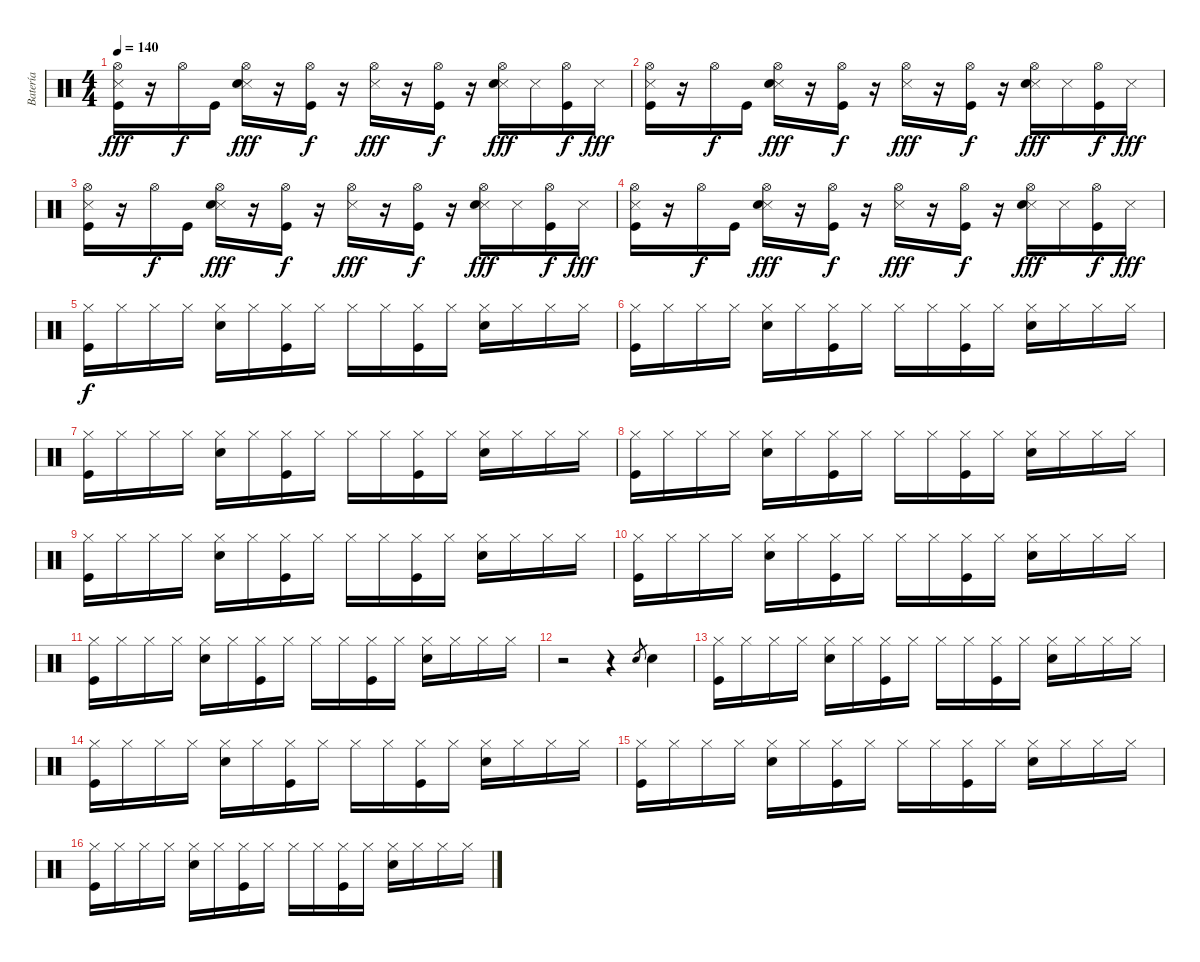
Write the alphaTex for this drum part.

\track ("Batería" "Batería") {instrument percussion}
\staff {score}
\articulation defaults
\ts (4 4)
\tempo 140
\clef neutral
\ks c
("Metronome (hit)" "Hi-Hat (open)" "Kick (hit)").16{dy fff} r.16 "Hi-Hat (open)".16{dy f} "Kick (hit)".16 ("Metronome (hit)" "Hi-Hat (open)" "Snare (hit) 2").16{dy fff} r.16 ("Hi-Hat (open)" "Kick (hit)").16{dy f} r.16 ("Metronome (hit)" "Hi-Hat (open)").16{dy fff} r.16 ("Hi-Hat (open)" "Kick (hit)").16{dy f} r.16 ("Metronome (hit)" "Hi-Hat (open)" "Snare (hit) 2").16{dy fff} "Metronome (hit)".16 ("Hi-Hat (open)" "Kick (hit)").16{dy f} "Metronome (hit)".16{dy fff} |
("Metronome (hit)" "Hi-Hat (open)" "Kick (hit)").16 r.16 "Hi-Hat (open)".16{dy f} "Kick (hit)".16 ("Metronome (hit)" "Hi-Hat (open)" "Snare (hit) 2").16{dy fff} r.16 ("Hi-Hat (open)" "Kick (hit)").16{dy f} r.16 ("Metronome (hit)" "Hi-Hat (open)").16{dy fff} r.16 ("Hi-Hat (open)" "Kick (hit)").16{dy f} r.16 ("Metronome (hit)" "Hi-Hat (open)" "Snare (hit) 2").16{dy fff} "Metronome (hit)".16 ("Hi-Hat (open)" "Kick (hit)").16{dy f} "Metronome (hit)".16{dy fff} |
("Metronome (hit)" "Hi-Hat (open)" "Kick (hit)").16 r.16 "Hi-Hat (open)".16{dy f} "Kick (hit)".16 ("Metronome (hit)" "Hi-Hat (open)" "Snare (hit) 2").16{dy fff} r.16 ("Hi-Hat (open)" "Kick (hit)").16{dy f} r.16 ("Metronome (hit)" "Hi-Hat (open)").16{dy fff} r.16 ("Hi-Hat (open)" "Kick (hit)").16{dy f} r.16 ("Metronome (hit)" "Hi-Hat (open)" "Snare (hit) 2").16{dy fff} "Metronome (hit)".16 ("Hi-Hat (open)" "Kick (hit)").16{dy f} "Metronome (hit)".16{dy fff} |
("Metronome (hit)" "Hi-Hat (open)" "Kick (hit)").16 r.16 "Hi-Hat (open)".16{dy f} "Kick (hit)".16 ("Metronome (hit)" "Hi-Hat (open)" "Snare (hit) 2").16{dy fff} r.16 ("Hi-Hat (open)" "Kick (hit)").16{dy f} r.16 ("Metronome (hit)" "Hi-Hat (open)").16{dy fff} r.16 ("Hi-Hat (open)" "Kick (hit)").16{dy f} r.16 ("Metronome (hit)" "Hi-Hat (open)" "Snare (hit) 2").16{dy fff} "Metronome (hit)".16 ("Hi-Hat (open)" "Kick (hit)").16{dy f} "Metronome (hit)".16{dy fff} |
("Hi-Hat (closed)" "Kick (hit)").16{dy f} "Hi-Hat (closed)".16 "Hi-Hat (closed)".16 "Hi-Hat (closed)".16 ("Hi-Hat (closed)" "Snare (hit) 2").16 "Hi-Hat (closed)".16 ("Hi-Hat (closed)" "Kick (hit)").16 "Hi-Hat (closed)".16 "Hi-Hat (closed)".16 "Hi-Hat (closed)".16 ("Hi-Hat (closed)" "Kick (hit)").16 "Hi-Hat (closed)".16 ("Hi-Hat (closed)" "Snare (hit) 2").16 "Hi-Hat (closed)".16 "Hi-Hat (closed)".16 "Hi-Hat (closed)".16 |
("Hi-Hat (closed)" "Kick (hit)").16 "Hi-Hat (closed)".16 "Hi-Hat (closed)".16 "Hi-Hat (closed)".16 ("Hi-Hat (closed)" "Snare (hit) 2").16 "Hi-Hat (closed)".16 ("Hi-Hat (closed)" "Kick (hit)").16 "Hi-Hat (closed)".16 "Hi-Hat (closed)".16 "Hi-Hat (closed)".16 ("Hi-Hat (closed)" "Kick (hit)").16 "Hi-Hat (closed)".16 ("Hi-Hat (closed)" "Snare (hit) 2").16 "Hi-Hat (closed)".16 "Hi-Hat (closed)".16 "Hi-Hat (closed)".16 |
("Hi-Hat (closed)" "Kick (hit)").16 "Hi-Hat (closed)".16 "Hi-Hat (closed)".16 "Hi-Hat (closed)".16 ("Hi-Hat (closed)" "Snare (hit) 2").16 "Hi-Hat (closed)".16 ("Hi-Hat (closed)" "Kick (hit)").16 "Hi-Hat (closed)".16 "Hi-Hat (closed)".16 "Hi-Hat (closed)".16 ("Hi-Hat (closed)" "Kick (hit)").16 "Hi-Hat (closed)".16 ("Hi-Hat (closed)" "Snare (hit) 2").16 "Hi-Hat (closed)".16 "Hi-Hat (closed)".16 "Hi-Hat (closed)".16 |
("Hi-Hat (closed)" "Kick (hit)").16 "Hi-Hat (closed)".16 "Hi-Hat (closed)".16 "Hi-Hat (closed)".16 ("Hi-Hat (closed)" "Snare (hit) 2").16 "Hi-Hat (closed)".16 ("Hi-Hat (closed)" "Kick (hit)").16 "Hi-Hat (closed)".16 "Hi-Hat (closed)".16 "Hi-Hat (closed)".16 ("Hi-Hat (closed)" "Kick (hit)").16 "Hi-Hat (closed)".16 ("Hi-Hat (closed)" "Snare (hit) 2").16 "Hi-Hat (closed)".16 "Hi-Hat (closed)".16 "Hi-Hat (closed)".16 |
("Hi-Hat (closed)" "Kick (hit)").16 "Hi-Hat (closed)".16 "Hi-Hat (closed)".16 "Hi-Hat (closed)".16 ("Hi-Hat (closed)" "Snare (hit) 2").16 "Hi-Hat (closed)".16 ("Hi-Hat (closed)" "Kick (hit)").16 "Hi-Hat (closed)".16 "Hi-Hat (closed)".16 "Hi-Hat (closed)".16 ("Hi-Hat (closed)" "Kick (hit)").16 "Hi-Hat (closed)".16 ("Hi-Hat (closed)" "Snare (hit) 2").16 "Hi-Hat (closed)".16 "Hi-Hat (closed)".16 "Hi-Hat (closed)".16 |
("Hi-Hat (closed)" "Kick (hit)").16 "Hi-Hat (closed)".16 "Hi-Hat (closed)".16 "Hi-Hat (closed)".16 ("Hi-Hat (closed)" "Snare (hit) 2").16 "Hi-Hat (closed)".16 ("Hi-Hat (closed)" "Kick (hit)").16 "Hi-Hat (closed)".16 "Hi-Hat (closed)".16 "Hi-Hat (closed)".16 ("Hi-Hat (closed)" "Kick (hit)").16 "Hi-Hat (closed)".16 ("Hi-Hat (closed)" "Snare (hit) 2").16 "Hi-Hat (closed)".16 "Hi-Hat (closed)".16 "Hi-Hat (closed)".16 |
("Hi-Hat (closed)" "Kick (hit)").16 "Hi-Hat (closed)".16 "Hi-Hat (closed)".16 "Hi-Hat (closed)".16 ("Hi-Hat (closed)" "Snare (hit) 2").16 "Hi-Hat (closed)".16 ("Hi-Hat (closed)" "Kick (hit)").16 "Hi-Hat (closed)".16 "Hi-Hat (closed)".16 "Hi-Hat (closed)".16 ("Hi-Hat (closed)" "Kick (hit)").16 "Hi-Hat (closed)".16 ("Hi-Hat (closed)" "Snare (hit) 2").16 "Hi-Hat (closed)".16 "Hi-Hat (closed)".16 "Hi-Hat (closed)".16 |
r.2 r.4 "Snare (hit) 2".8{gr} "Snare (hit) 2".4 |
("Hi-Hat (closed)" "Kick (hit)").16 "Hi-Hat (closed)".16 "Hi-Hat (closed)".16 "Hi-Hat (closed)".16 ("Hi-Hat (closed)" "Snare (hit) 2").16 "Hi-Hat (closed)".16 ("Hi-Hat (closed)" "Kick (hit)").16 "Hi-Hat (closed)".16 "Hi-Hat (closed)".16 "Hi-Hat (closed)".16 ("Hi-Hat (closed)" "Kick (hit)").16 "Hi-Hat (closed)".16 ("Hi-Hat (closed)" "Snare (hit) 2").16 "Hi-Hat (closed)".16 "Hi-Hat (closed)".16 "Hi-Hat (closed)".16 |
("Hi-Hat (closed)" "Kick (hit)").16 "Hi-Hat (closed)".16 "Hi-Hat (closed)".16 "Hi-Hat (closed)".16 ("Hi-Hat (closed)" "Snare (hit) 2").16 "Hi-Hat (closed)".16 ("Hi-Hat (closed)" "Kick (hit)").16 "Hi-Hat (closed)".16 "Hi-Hat (closed)".16 "Hi-Hat (closed)".16 ("Hi-Hat (closed)" "Kick (hit)").16 "Hi-Hat (closed)".16 ("Hi-Hat (closed)" "Snare (hit) 2").16 "Hi-Hat (closed)".16 "Hi-Hat (closed)".16 "Hi-Hat (closed)".16 |
("Hi-Hat (closed)" "Kick (hit)").16 "Hi-Hat (closed)".16 "Hi-Hat (closed)".16 "Hi-Hat (closed)".16 ("Hi-Hat (closed)" "Snare (hit) 2").16 "Hi-Hat (closed)".16 ("Hi-Hat (closed)" "Kick (hit)").16 "Hi-Hat (closed)".16 "Hi-Hat (closed)".16 "Hi-Hat (closed)".16 ("Hi-Hat (closed)" "Kick (hit)").16 "Hi-Hat (closed)".16 ("Hi-Hat (closed)" "Snare (hit) 2").16 "Hi-Hat (closed)".16 "Hi-Hat (closed)".16 "Hi-Hat (closed)".16 |
("Hi-Hat (closed)" "Kick (hit)").16 "Hi-Hat (closed)".16 "Hi-Hat (closed)".16 "Hi-Hat (closed)".16 ("Hi-Hat (closed)" "Snare (hit) 2").16 "Hi-Hat (closed)".16 ("Hi-Hat (closed)" "Kick (hit)").16 "Hi-Hat (closed)".16 "Hi-Hat (closed)".16 "Hi-Hat (closed)".16 ("Hi-Hat (closed)" "Kick (hit)").16 "Hi-Hat (closed)".16 ("Hi-Hat (closed)" "Snare (hit) 2").16 "Hi-Hat (closed)".16 "Hi-Hat (closed)".16 "Hi-Hat (closed)".16
